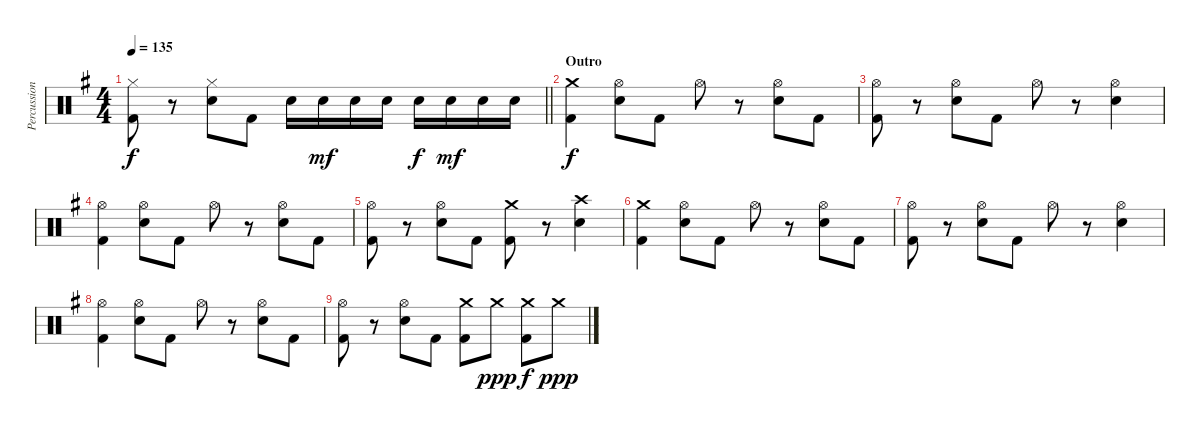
\track ("Percussion" "Percussion") {instrument percussion}
\staff {score}
\articulation defaults
\ts (4 4)
\tempo 135
\clef neutral
\barLineRight lightlight
\ks g
("Hi-Hat (closed)" "Kick (hit) 2").8{dy f} r.8 ("Hi-Hat (closed)" "Electric Snare (hit)").8 "Kick (hit) 2".8 "Electric Snare (hit)".16 "Electric Snare (hit)".16{dy mf} "Electric Snare (hit)".16 "Electric Snare (hit)".16 "Electric Snare (hit)".16{dy f} "Electric Snare (hit)".16{dy mf} "Electric Snare (hit)".16 "Electric Snare (hit)".16 |
\section ("" "Outro")
("Crash medium (hit)" "Kick (hit) 2").4{dy f} ("Hi-Hat (open)" "Electric Snare (hit)").8 "Kick (hit) 2".8 "Hi-Hat (open)".8 r.8 ("Hi-Hat (open)" "Electric Snare (hit)").8 "Kick (hit) 2".8 |
("Hi-Hat (open)" "Kick (hit) 2").8 r.8 ("Hi-Hat (open)" "Electric Snare (hit)").8 "Kick (hit) 2".8 "Hi-Hat (open)".8 r.8 ("Hi-Hat (open)" "Electric Snare (hit)").4 |
("Hi-Hat (open)" "Kick (hit) 2").4 ("Hi-Hat (open)" "Electric Snare (hit)").8 "Kick (hit) 2".8 "Hi-Hat (open)".8 r.8 ("Hi-Hat (open)" "Electric Snare (hit)").8 "Kick (hit) 2".8 |
("Hi-Hat (open)" "Kick (hit) 2").8 r.8 ("Hi-Hat (open)" "Electric Snare (hit)").8 "Kick (hit) 2".8 ("Crash medium (hit)" "Kick (hit) 2").8 r.8 ("Crash high (hit)" "Electric Snare (hit)").4 |
("Crash medium (hit)" "Kick (hit) 2").4 ("Hi-Hat (open)" "Electric Snare (hit)").8 "Kick (hit) 2".8 "Hi-Hat (open)".8 r.8 ("Hi-Hat (open)" "Electric Snare (hit)").8 "Kick (hit) 2".8 |
("Hi-Hat (open)" "Kick (hit) 2").8 r.8 ("Hi-Hat (open)" "Electric Snare (hit)").8 "Kick (hit) 2".8 "Hi-Hat (open)".8 r.8 ("Hi-Hat (open)" "Electric Snare (hit)").4 |
("Hi-Hat (open)" "Kick (hit) 2").4 ("Hi-Hat (open)" "Electric Snare (hit)").8 "Kick (hit) 2".8 "Hi-Hat (open)".8 r.8 ("Hi-Hat (open)" "Electric Snare (hit)").8 "Kick (hit) 2".8 |
("Hi-Hat (open)" "Kick (hit) 2").8 r.8 ("Hi-Hat (open)" "Electric Snare (hit)").8 "Kick (hit) 2".8 ("Kick (hit) 2" "Crash medium (hit)").8 "Crash medium (hit)".8{dy ppp} ("Kick (hit) 2" "Crash medium (hit)").8{dy f} "Crash medium (hit)".8{dy ppp}
